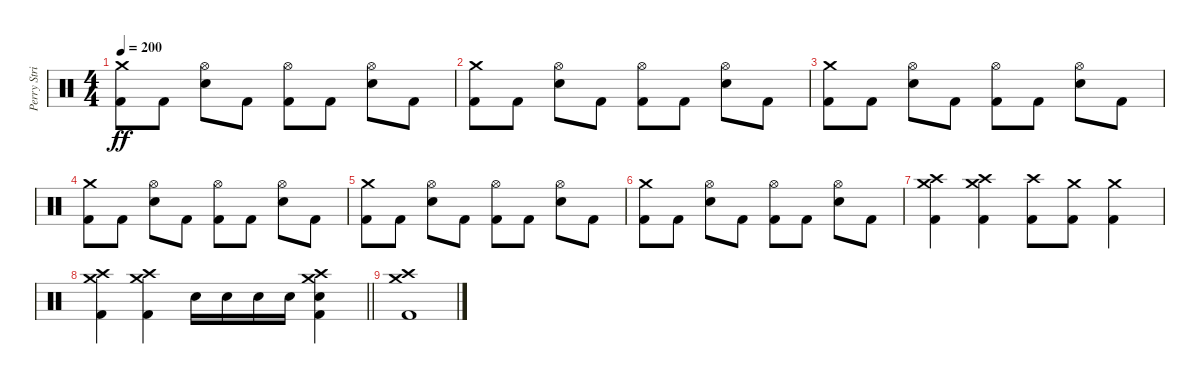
\track ("Perry Strickland" "Perry Stri") {instrument percussion}
\staff {score}
\articulation defaults
\ts (4 4)
\tempo 200
\clef neutral
\ks c
("Crash medium (hit)" "Kick (hit) 2").8{dy ff} "Kick (hit) 2".8 ("Hi-Hat (open)" "Snare (hit) 2").8 "Kick (hit) 2".8 ("Hi-Hat (open)" "Kick (hit) 2").8 "Kick (hit) 2".8 ("Hi-Hat (open)" "Snare (hit) 2").8 "Kick (hit) 2".8 |
("Crash medium (hit)" "Kick (hit) 2").8 "Kick (hit) 2".8 ("Hi-Hat (open)" "Snare (hit) 2").8 "Kick (hit) 2".8 ("Hi-Hat (open)" "Kick (hit) 2").8 "Kick (hit) 2".8 ("Hi-Hat (open)" "Snare (hit) 2").8 "Kick (hit) 2".8 |
("Crash medium (hit)" "Kick (hit) 2").8 "Kick (hit) 2".8 ("Hi-Hat (open)" "Snare (hit) 2").8 "Kick (hit) 2".8 ("Hi-Hat (open)" "Kick (hit) 2").8 "Kick (hit) 2".8 ("Hi-Hat (open)" "Snare (hit) 2").8 "Kick (hit) 2".8 |
("Crash medium (hit)" "Kick (hit) 2").8 "Kick (hit) 2".8 ("Hi-Hat (open)" "Snare (hit) 2").8 "Kick (hit) 2".8 ("Hi-Hat (open)" "Kick (hit) 2").8 "Kick (hit) 2".8 ("Hi-Hat (open)" "Snare (hit) 2").8 "Kick (hit) 2".8 |
("Crash medium (hit)" "Kick (hit) 2").8 "Kick (hit) 2".8 ("Hi-Hat (open)" "Snare (hit) 2").8 "Kick (hit) 2".8 ("Hi-Hat (open)" "Kick (hit) 2").8 "Kick (hit) 2".8 ("Hi-Hat (open)" "Snare (hit) 2").8 "Kick (hit) 2".8 |
("Crash medium (hit)" "Kick (hit) 2").8 "Kick (hit) 2".8 ("Hi-Hat (open)" "Snare (hit) 2").8 "Kick (hit) 2".8 ("Hi-Hat (open)" "Kick (hit) 2").8 "Kick (hit) 2".8 ("Hi-Hat (open)" "Snare (hit) 2").8 "Kick (hit) 2".8 |
("Crash medium (hit)" "Crash high (hit)" "Kick (hit) 2").4 ("Crash medium (hit)" "Crash high (hit)" "Kick (hit) 2").4 ("Crash high (hit)" "Kick (hit) 2").8 ("Crash medium (hit)" "Kick (hit) 2").8 ("Crash medium (hit)" "Kick (hit) 2").4 |
\barLineRight lightlight
("Crash medium (hit)" "Crash high (hit)" "Kick (hit) 2").4 ("Crash medium (hit)" "Crash high (hit)" "Kick (hit) 2").4 "Snare (hit) 2".16 "Snare (hit) 2".16 "Snare (hit) 2".16 "Snare (hit) 2".16 ("Crash medium (hit)" "Crash high (hit)" "Snare (hit) 2" "Kick (hit) 2").4 |
("Crash high (hit)" "Crash medium (hit)" "Kick (hit) 2").1
